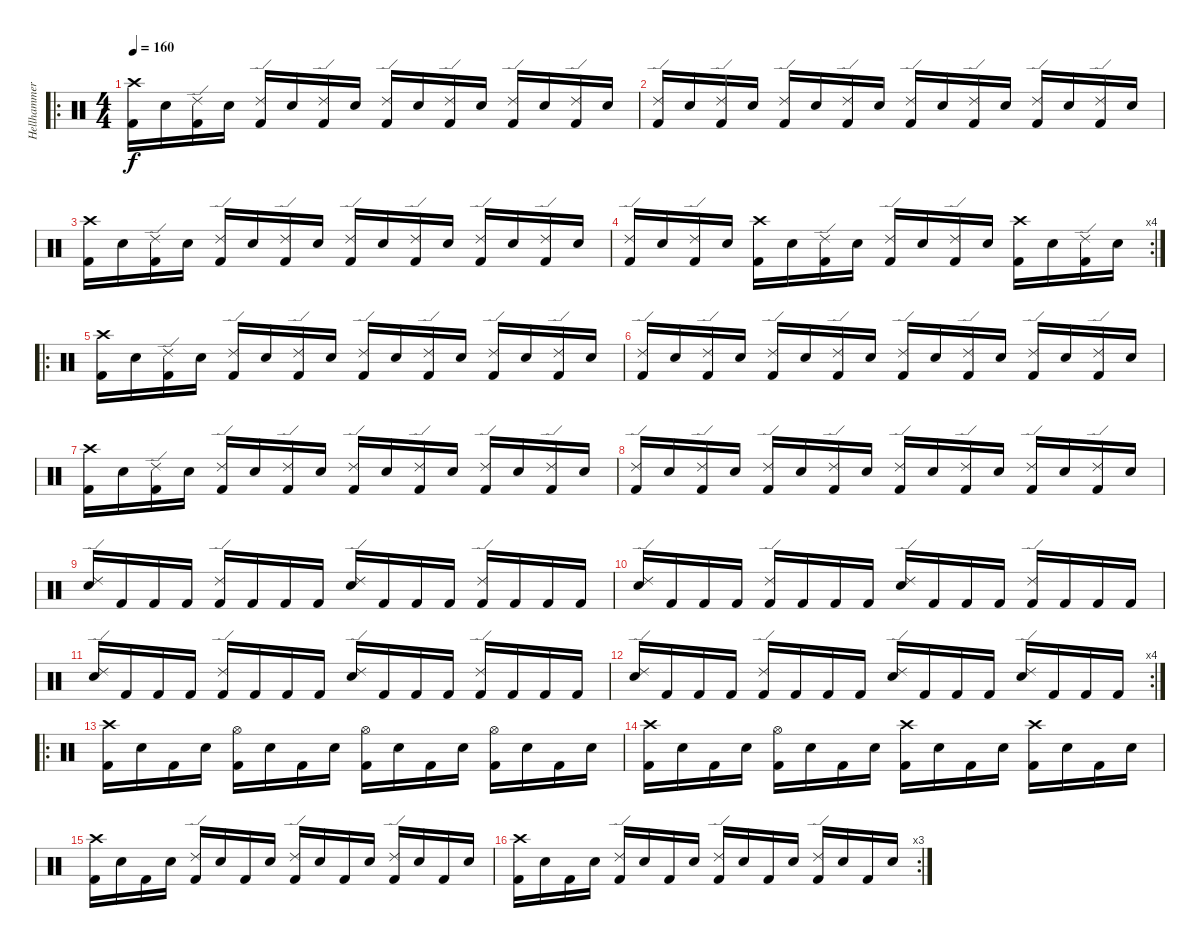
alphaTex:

\track ("Hellhammer" "Hellhammer") {instrument percussion}
\staff {score}
\articulation defaults
\ro
\ts (4 4)
\tempo 160
\clef neutral
\ks c
("Kick (hit) 2" "Crash high (hit)").16{dy f} "Snare (hit) 2".16 ("Kick (hit) 2" "Ride (edge) 2").16 "Snare (hit) 2".16 ("Kick (hit) 2" "Ride (edge) 2").16 "Snare (hit) 2".16 ("Kick (hit) 2" "Ride (edge) 2").16 "Snare (hit) 2".16 ("Kick (hit) 2" "Ride (edge) 2").16 "Snare (hit) 2".16 ("Kick (hit) 2" "Ride (edge) 2").16 "Snare (hit) 2".16 ("Kick (hit) 2" "Ride (edge) 2").16 "Snare (hit) 2".16 ("Kick (hit) 2" "Ride (edge) 2").16 "Snare (hit) 2".16 |
("Kick (hit) 2" "Ride (edge) 2").16 "Snare (hit) 2".16 ("Kick (hit) 2" "Ride (edge) 2").16 "Snare (hit) 2".16 ("Kick (hit) 2" "Ride (edge) 2").16 "Snare (hit) 2".16 ("Kick (hit) 2" "Ride (edge) 2").16 "Snare (hit) 2".16 ("Kick (hit) 2" "Ride (edge) 2").16 "Snare (hit) 2".16 ("Kick (hit) 2" "Ride (edge) 2").16 "Snare (hit) 2".16 ("Kick (hit) 2" "Ride (edge) 2").16 "Snare (hit) 2".16 ("Kick (hit) 2" "Ride (edge) 2").16 "Snare (hit) 2".16 |
("Kick (hit) 2" "Crash high (hit)").16 "Snare (hit) 2".16 ("Kick (hit) 2" "Ride (edge) 2").16 "Snare (hit) 2".16 ("Kick (hit) 2" "Ride (edge) 2").16 "Snare (hit) 2".16 ("Kick (hit) 2" "Ride (edge) 2").16 "Snare (hit) 2".16 ("Kick (hit) 2" "Ride (edge) 2").16 "Snare (hit) 2".16 ("Kick (hit) 2" "Ride (edge) 2").16 "Snare (hit) 2".16 ("Kick (hit) 2" "Ride (edge) 2").16 "Snare (hit) 2".16 ("Kick (hit) 2" "Ride (edge) 2").16 "Snare (hit) 2".16 |
\rc 4
("Kick (hit) 2" "Ride (edge) 2").16 "Snare (hit) 2".16 ("Kick (hit) 2" "Ride (edge) 2").16 "Snare (hit) 2".16 ("Kick (hit) 2" "Crash high (hit)").16 "Snare (hit) 2".16 ("Kick (hit) 2" "Ride (edge) 2").16 "Snare (hit) 2".16 ("Kick (hit) 2" "Ride (edge) 2").16 "Snare (hit) 2".16 ("Kick (hit) 2" "Ride (edge) 2").16 "Snare (hit) 2".16 ("Kick (hit) 2" "Crash high (hit)").16 "Snare (hit) 2".16 ("Kick (hit) 2" "Ride (edge) 2").16 "Snare (hit) 2".16 |
\ro
("Crash high (hit)" "Kick (hit) 2").16 "Snare (hit) 2".16 ("Ride (edge) 2" "Kick (hit) 2").16 "Snare (hit) 2".16 ("Ride (edge) 2" "Kick (hit) 2").16 "Snare (hit) 2".16 ("Ride (edge) 2" "Kick (hit) 2").16 "Snare (hit) 2".16 ("Ride (edge) 2" "Kick (hit) 2").16 "Snare (hit) 2".16 ("Ride (edge) 2" "Kick (hit) 2").16 "Snare (hit) 2".16 ("Ride (edge) 2" "Kick (hit) 2").16 "Snare (hit) 2".16 ("Ride (edge) 2" "Kick (hit) 2").16 "Snare (hit) 2".16 |
("Ride (edge) 2" "Kick (hit) 2").16 "Snare (hit) 2".16 ("Ride (edge) 2" "Kick (hit) 2").16 "Snare (hit) 2".16 ("Ride (edge) 2" "Kick (hit) 2").16 "Snare (hit) 2".16 ("Ride (edge) 2" "Kick (hit) 2").16 "Snare (hit) 2".16 ("Ride (edge) 2" "Kick (hit) 2").16 "Snare (hit) 2".16 ("Ride (edge) 2" "Kick (hit) 2").16 "Snare (hit) 2".16 ("Ride (edge) 2" "Kick (hit) 2").16 "Snare (hit) 2".16 ("Ride (edge) 2" "Kick (hit) 2").16 "Snare (hit) 2".16 |
("Crash high (hit)" "Kick (hit) 2").16 "Snare (hit) 2".16 ("Ride (edge) 2" "Kick (hit) 2").16 "Snare (hit) 2".16 ("Ride (edge) 2" "Kick (hit) 2").16 "Snare (hit) 2".16 ("Ride (edge) 2" "Kick (hit) 2").16 "Snare (hit) 2".16 ("Ride (edge) 2" "Kick (hit) 2").16 "Snare (hit) 2".16 ("Ride (edge) 2" "Kick (hit) 2").16 "Snare (hit) 2".16 ("Ride (edge) 2" "Kick (hit) 2").16 "Snare (hit) 2".16 ("Ride (edge) 2" "Kick (hit) 2").16 "Snare (hit) 2".16 |
("Ride (edge) 2" "Kick (hit) 2").16 "Snare (hit) 2".16 ("Ride (edge) 2" "Kick (hit) 2").16 "Snare (hit) 2".16 ("Ride (edge) 2" "Kick (hit) 2").16 "Snare (hit) 2".16 ("Ride (edge) 2" "Kick (hit) 2").16 "Snare (hit) 2".16 ("Ride (edge) 2" "Kick (hit) 2").16 "Snare (hit) 2".16 ("Ride (edge) 2" "Kick (hit) 2").16 "Snare (hit) 2".16 ("Ride (edge) 2" "Kick (hit) 2").16 "Snare (hit) 2".16 ("Ride (edge) 2" "Kick (hit) 2").16 "Snare (hit) 2".16 |
("Snare (hit) 2" "Ride (edge) 2").16 "Kick (hit) 2".16 "Kick (hit) 2".16 "Kick (hit) 2".16 ("Kick (hit) 2" "Ride (edge) 2").16 "Kick (hit) 2".16 "Kick (hit) 2".16 "Kick (hit) 2".16 ("Snare (hit) 2" "Ride (edge) 2").16 "Kick (hit) 2".16 "Kick (hit) 2".16 "Kick (hit) 2".16 ("Kick (hit) 2" "Ride (edge) 2").16 "Kick (hit) 2".16 "Kick (hit) 2".16 "Kick (hit) 2".16 |
("Snare (hit) 2" "Ride (edge) 2").16 "Kick (hit) 2".16 "Kick (hit) 2".16 "Kick (hit) 2".16 ("Kick (hit) 2" "Ride (edge) 2").16 "Kick (hit) 2".16 "Kick (hit) 2".16 "Kick (hit) 2".16 ("Snare (hit) 2" "Ride (edge) 2").16 "Kick (hit) 2".16 "Kick (hit) 2".16 "Kick (hit) 2".16 ("Kick (hit) 2" "Ride (edge) 2").16 "Kick (hit) 2".16 "Kick (hit) 2".16 "Kick (hit) 2".16 |
("Snare (hit) 2" "Ride (edge) 2").16 "Kick (hit) 2".16 "Kick (hit) 2".16 "Kick (hit) 2".16 ("Kick (hit) 2" "Ride (edge) 2").16 "Kick (hit) 2".16 "Kick (hit) 2".16 "Kick (hit) 2".16 ("Snare (hit) 2" "Ride (edge) 2").16 "Kick (hit) 2".16 "Kick (hit) 2".16 "Kick (hit) 2".16 ("Kick (hit) 2" "Ride (edge) 2").16 "Kick (hit) 2".16 "Kick (hit) 2".16 "Kick (hit) 2".16 |
\rc 4
("Snare (hit) 2" "Ride (edge) 2").16 "Kick (hit) 2".16 "Kick (hit) 2".16 "Kick (hit) 2".16 ("Kick (hit) 2" "Ride (edge) 2").16 "Kick (hit) 2".16 "Kick (hit) 2".16 "Kick (hit) 2".16 ("Snare (hit) 2" "Ride (edge) 2").16 "Kick (hit) 2".16 "Kick (hit) 2".16 "Kick (hit) 2".16 ("Snare (hit) 2" "Ride (edge) 2").16 "Kick (hit) 2".16 "Kick (hit) 2".16 "Kick (hit) 2".16 |
\ro
("Kick (hit) 2" "Crash high (hit)").16 "Snare (hit) 2".16 "Kick (hit) 2".16 "Snare (hit) 2".16 ("Kick (hit) 2" "Hi-Hat (open)").16 "Snare (hit) 2".16 "Kick (hit) 2".16 "Snare (hit) 2".16 ("Kick (hit) 2" "Hi-Hat (open)").16 "Snare (hit) 2".16 "Kick (hit) 2".16 "Snare (hit) 2".16 ("Kick (hit) 2" "Hi-Hat (open)").16 "Snare (hit) 2".16 "Kick (hit) 2".16 "Snare (hit) 2".16 |
("Kick (hit) 2" "Crash high (hit)").16 "Snare (hit) 2".16 "Kick (hit) 2".16 "Snare (hit) 2".16 ("Kick (hit) 2" "Hi-Hat (open)").16 "Snare (hit) 2".16 "Kick (hit) 2".16 "Snare (hit) 2".16 ("Kick (hit) 2" "Crash high (hit)").16 "Snare (hit) 2".16 "Kick (hit) 2".16 "Snare (hit) 2".16 ("Kick (hit) 2" "Crash high (hit)").16 "Snare (hit) 2".16 "Kick (hit) 2".16 "Snare (hit) 2".16 |
("Kick (hit) 2" "Crash high (hit)").16 "Snare (hit) 2".16 "Kick (hit) 2".16 "Snare (hit) 2".16 ("Kick (hit) 2" "Ride (edge) 2").16 "Snare (hit) 2".16 "Kick (hit) 2".16 "Snare (hit) 2".16 ("Kick (hit) 2" "Ride (edge) 2").16 "Snare (hit) 2".16 "Kick (hit) 2".16 "Snare (hit) 2".16 ("Kick (hit) 2" "Ride (edge) 2").16 "Snare (hit) 2".16 "Kick (hit) 2".16 "Snare (hit) 2".16 |
\rc 3
("Kick (hit) 2" "Crash high (hit)").16 "Snare (hit) 2".16 "Kick (hit) 2".16 "Snare (hit) 2".16 ("Kick (hit) 2" "Ride (edge) 2").16 "Snare (hit) 2".16 "Kick (hit) 2".16 "Snare (hit) 2".16 ("Kick (hit) 2" "Ride (edge) 2").16 "Snare (hit) 2".16 "Kick (hit) 2".16 "Snare (hit) 2".16 ("Kick (hit) 2" "Ride (edge) 2").16 "Snare (hit) 2".16 "Kick (hit) 2".16 "Snare (hit) 2".16
